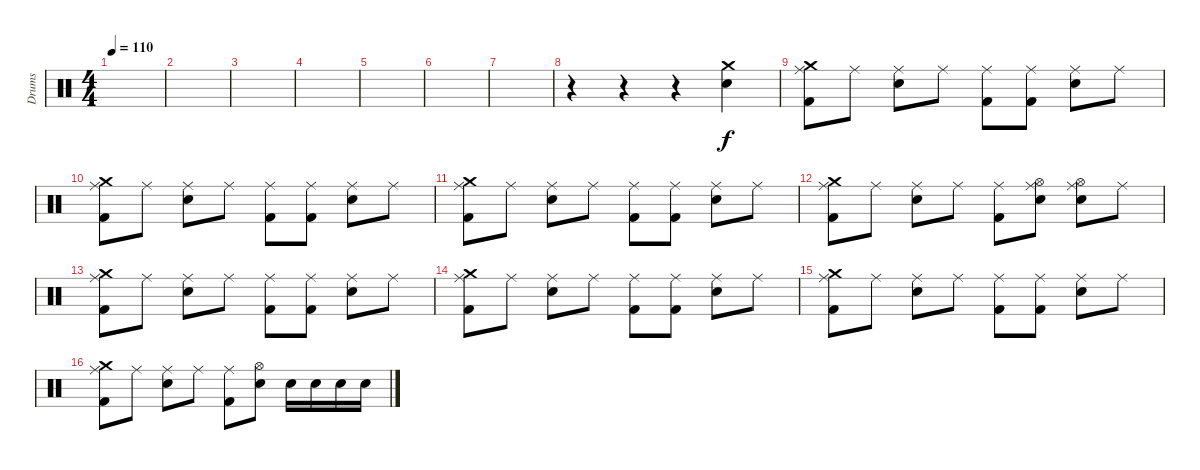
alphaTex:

\track ("Drums" "Drums") {instrument percussion}
\staff {score}
\articulation defaults
\ts (4 4)
\tempo 110
\clef neutral
\ks aminor
|
|
|
|
|
|
|
r.4 r.4 r.4 ("Crash medium (hit)" "Electric Snare (hit)").4 |
("Crash medium (hit)" "Ride (middle)" "Kick (hit) 2").8 "Ride (middle)".8 ("Ride (middle)" "Electric Snare (hit)").8 "Ride (middle)".8 ("Ride (middle)" "Kick (hit) 2").8 ("Ride (middle)" "Kick (hit) 2").8 ("Ride (middle)" "Electric Snare (hit)").8 "Ride (middle)".8 |
("Crash medium (hit)" "Ride (middle)" "Kick (hit) 2").8 "Ride (middle)".8 ("Ride (middle)" "Electric Snare (hit)").8 "Ride (middle)".8 ("Ride (middle)" "Kick (hit) 2").8 ("Ride (middle)" "Kick (hit) 2").8 ("Ride (middle)" "Electric Snare (hit)").8 "Ride (middle)".8 |
("Crash medium (hit)" "Ride (middle)" "Kick (hit) 2").8 "Ride (middle)".8 ("Ride (middle)" "Electric Snare (hit)").8 "Ride (middle)".8 ("Ride (middle)" "Kick (hit) 2").8 ("Ride (middle)" "Kick (hit) 2").8 ("Ride (middle)" "Electric Snare (hit)").8 "Ride (middle)".8 |
("Crash medium (hit)" "Ride (middle)" "Kick (hit) 2").8 "Ride (middle)".8 ("Ride (middle)" "Electric Snare (hit)").8 "Ride (middle)".8 ("Ride (middle)" "Kick (hit) 2").8 ("Ride (middle)" "Hi-Hat (open)" "Electric Snare (hit)").8 ("Ride (middle)" "Hi-Hat (open)" "Electric Snare (hit)").8 "Ride (middle)".8 |
("Crash medium (hit)" "Ride (middle)" "Kick (hit) 2").8 "Ride (middle)".8 ("Ride (middle)" "Electric Snare (hit)").8 "Ride (middle)".8 ("Ride (middle)" "Kick (hit) 2").8 ("Ride (middle)" "Kick (hit) 2").8 ("Ride (middle)" "Electric Snare (hit)").8 "Ride (middle)".8 |
("Crash medium (hit)" "Ride (middle)" "Kick (hit) 2").8 "Ride (middle)".8 ("Ride (middle)" "Electric Snare (hit)").8 "Ride (middle)".8 ("Ride (middle)" "Kick (hit) 2").8 ("Ride (middle)" "Kick (hit) 2").8 ("Ride (middle)" "Electric Snare (hit)").8 "Ride (middle)".8 |
("Crash medium (hit)" "Ride (middle)" "Kick (hit) 2").8 "Ride (middle)".8 ("Ride (middle)" "Electric Snare (hit)").8 "Ride (middle)".8 ("Ride (middle)" "Kick (hit) 2").8 ("Ride (middle)" "Kick (hit) 2").8 ("Ride (middle)" "Electric Snare (hit)").8 "Ride (middle)".8 |
("Crash medium (hit)" "Ride (middle)" "Kick (hit) 2").8 "Ride (middle)".8 ("Ride (middle)" "Electric Snare (hit)").8 "Ride (middle)".8 ("Ride (middle)" "Kick (hit) 2").8 ("Hi-Hat (open)" "Electric Snare (hit)").8 "Electric Snare (hit)".16 "Electric Snare (hit)".16 "Electric Snare (hit)".16 "Electric Snare (hit)".16
